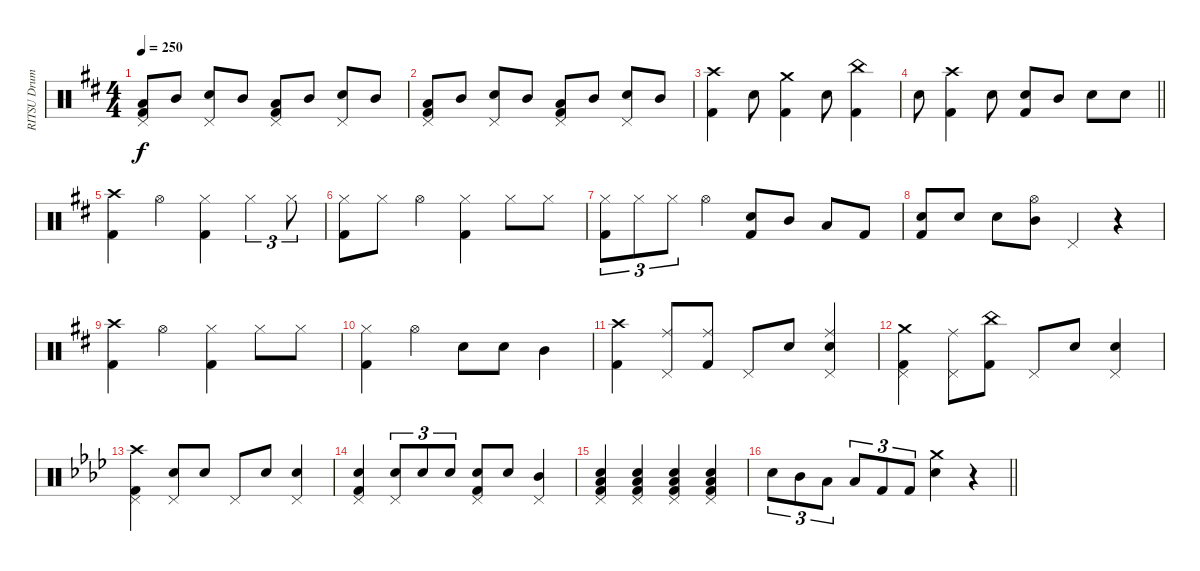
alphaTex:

\track ("RITSU Drums" "RITSU Drum") {instrument percussion}
\staff {score}
\articulation defaults
\ts (4 4)
\tempo 250
\clef neutral
\ks d
("Pedal Hi-Hat (hit)" "Low Floor Tom (hit)" "Kick (hit) 2").8{dy f} "Mid Tom (hit)".8 ("Pedal Hi-Hat (hit)" "Electric Snare (hit)").8 "Mid Tom (hit)".8 ("Pedal Hi-Hat (hit)" "Low Floor Tom (hit)" "Kick (hit) 2").8 "Mid Tom (hit)".8 ("Pedal Hi-Hat (hit)" "Electric Snare (hit)").8 "Mid Tom (hit)".8 |
("Pedal Hi-Hat (hit)" "Low Floor Tom (hit)" "Kick (hit) 2").8 "Mid Tom (hit)".8 ("Pedal Hi-Hat (hit)" "Electric Snare (hit)").8 "Mid Tom (hit)".8 ("Pedal Hi-Hat (hit)" "Low Floor Tom (hit)" "Kick (hit) 2").8 "Mid Tom (hit)".8 ("Pedal Hi-Hat (hit)" "Electric Snare (hit)").8 "Mid Tom (hit)".8 |
("Crash high (hit)" "Kick (hit) 2").4 "Electric Snare (hit)".8 ("Crash medium (hit)" "Kick (hit) 2").4 "Electric Snare (hit)".8 ("China (hit)" "Kick (hit) 2").4 |
\barLineRight lightlight "Electric Snare (hit)".8
("Crash high (hit)" "Kick (hit) 2").4 "Electric Snare (hit)".8 ("Electric Snare (hit)" "Kick (hit) 2").8 "Mid Tom (hit)".8 "Electric Snare (hit)".8 "Electric Snare (hit)".8 |
("Crash high (hit)" "Kick (hit) 2").4 "Hi-Hat (open)".4 ("Hi-Hat (closed)" "Kick (hit) 2").4 "Hi-Hat (closed)".4{tu (3 2)} "Hi-Hat (closed)".8{tu (3 2)} |
("Hi-Hat (closed)" "Kick (hit) 2").8 "Hi-Hat (closed)".8 "Hi-Hat (open)".4 ("Hi-Hat (closed)" "Kick (hit) 2").4 "Hi-Hat (closed)".8 "Hi-Hat (closed)".8 |
("Hi-Hat (closed)" "Kick (hit) 2").8{tu (3 2)} "Hi-Hat (closed)".8{tu (3 2)} "Hi-Hat (closed)".8{tu (3 2)} "Hi-Hat (open)".4 ("Electric Snare (hit)" "Kick (hit) 2").8 "Mid Tom (hit)".8 "Low Floor Tom (hit)".8 "Kick (hit) 2".8 |
("Electric Snare (hit)" "Kick (hit) 2").8 "Electric Snare (hit)".8 "Electric Snare (hit)".8 ("Hi-Hat (open)" "Mid Tom (hit)").8 "Pedal Hi-Hat (hit)".4 r.4 |
("Crash high (hit)" "Kick (hit) 2").4 "Hi-Hat (open)".4 ("Hi-Hat (closed)" "Kick (hit) 2").4 "Hi-Hat (closed)".8 "Hi-Hat (closed)".8 |
("Hi-Hat (closed)" "Kick (hit) 2").4 "Hi-Hat (open)".4 "Electric Snare (hit)".8 "Electric Snare (hit)".8 "Mid Tom (hit)".4 |
("Crash high (hit)" "Kick (hit) 2").4 ("Ride (middle)" "Pedal Hi-Hat (hit)").8 ("Ride (middle)" "Kick (hit) 2").8 "Pedal Hi-Hat (hit)".8 "Electric Snare (hit)".8 ("Ride (middle)" "Pedal Hi-Hat (hit)" "Electric Snare (hit)").4 |
("Crash medium (hit)" "Pedal Hi-Hat (hit)" "Kick (hit) 2").4 ("Ride (middle)" "Pedal Hi-Hat (hit)").8 ("China (hit)" "Kick (hit) 2").8 "Pedal Hi-Hat (hit)".8 "Electric Snare (hit)".8 ("Pedal Hi-Hat (hit)" "Electric Snare (hit)").4 |
\ks ab
("Crash high (hit)" "Pedal Hi-Hat (hit)" "Kick (hit) 2").4 ("Pedal Hi-Hat (hit)" "Electric Snare (hit)").8 "Electric Snare (hit)".8 "Pedal Hi-Hat (hit)".8 "Electric Snare (hit)".8 ("Pedal Hi-Hat (hit)" "Electric Snare (hit)").4 |
("Pedal Hi-Hat (hit)" "Electric Snare (hit)" "Kick (hit) 2").4 ("Pedal Hi-Hat (hit)" "Electric Snare (hit)").8{tu (3 2)} "Electric Snare (hit)".8{tu (3 2)} "Electric Snare (hit)".8{tu (3 2)} ("Pedal Hi-Hat (hit)" "Electric Snare (hit)" "Kick (hit) 2").8 "Electric Snare (hit)".8 ("Pedal Hi-Hat (hit)" "Mid Tom (hit)").4 |
("Pedal Hi-Hat (hit)" "Electric Snare (hit)" "Low Floor Tom (hit)" "Kick (hit) 2").4 ("Pedal Hi-Hat (hit)" "Electric Snare (hit)" "Low Floor Tom (hit)" "Kick (hit) 2").4 ("Pedal Hi-Hat (hit)" "Electric Snare (hit)" "Low Floor Tom (hit)" "Kick (hit) 2").4 ("Pedal Hi-Hat (hit)" "Electric Snare (hit)" "Low Floor Tom (hit)" "Kick (hit) 2").4 |
\barLineRight lightlight "Electric Snare (hit)".8{tu (3 2)} "Mid Tom (hit)".8{tu (3 2)} "Low Floor Tom (hit)".8{tu (3 2)} "Low Floor Tom (hit)".8{tu (3 2)} "Kick (hit) 2".8{tu (3 2)} "Kick (hit) 2".8{tu (3 2)}
("Crash medium (hit)" "Electric Snare (hit)").4 r.4
